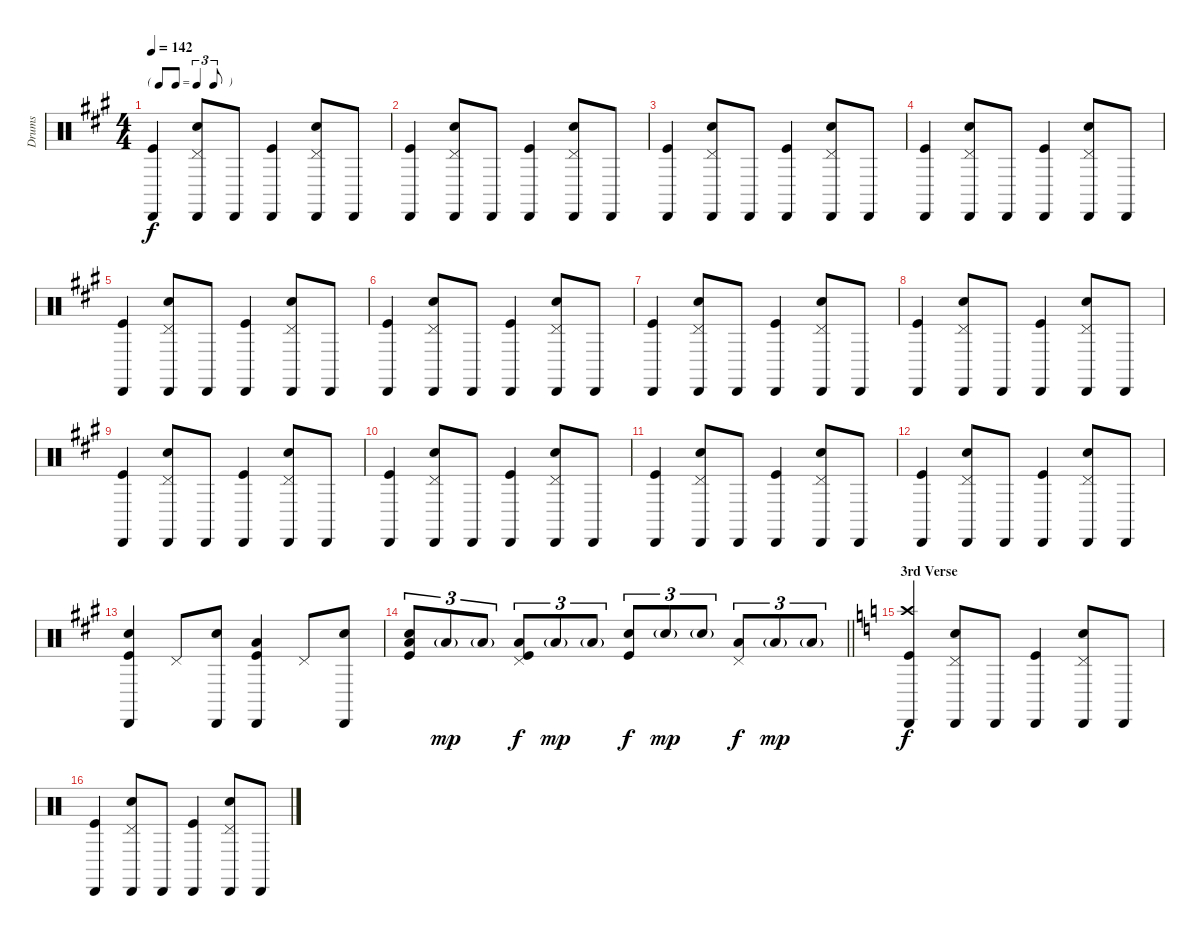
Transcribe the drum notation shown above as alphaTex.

\track ("Drums" "Drums") {instrument percussion}
\staff {score}
\articulation defaults
\ts (4 4)
\tf triplet8th
\tempo 142
\clef neutral
\ks a
("Cabasa (hit)" "Kick (hit)").4{dy f} ("Pedal Hi-Hat (hit)" "Cabasa (hit)" "Snare (hit) 2").8 "Cabasa (hit)".8 ("Cabasa (hit)" "Kick (hit)").4 ("Pedal Hi-Hat (hit)" "Cabasa (hit)" "Snare (hit) 2").8 "Cabasa (hit)".8 |
("Cabasa (hit)" "Kick (hit)").4 ("Pedal Hi-Hat (hit)" "Cabasa (hit)" "Snare (hit) 2").8 "Cabasa (hit)".8 ("Cabasa (hit)" "Kick (hit)").4 ("Pedal Hi-Hat (hit)" "Cabasa (hit)" "Snare (hit) 2").8 "Cabasa (hit)".8 |
("Cabasa (hit)" "Kick (hit)").4 ("Pedal Hi-Hat (hit)" "Cabasa (hit)" "Snare (hit) 2").8 "Cabasa (hit)".8 ("Cabasa (hit)" "Kick (hit)").4 ("Pedal Hi-Hat (hit)" "Cabasa (hit)" "Snare (hit) 2").8 "Cabasa (hit)".8 |
("Cabasa (hit)" "Kick (hit)").4 ("Pedal Hi-Hat (hit)" "Cabasa (hit)" "Snare (hit) 2").8 "Cabasa (hit)".8 ("Cabasa (hit)" "Kick (hit)").4 ("Pedal Hi-Hat (hit)" "Cabasa (hit)" "Snare (hit) 2").8 "Cabasa (hit)".8 |
("Cabasa (hit)" "Kick (hit)").4 ("Pedal Hi-Hat (hit)" "Cabasa (hit)" "Snare (hit) 2").8 "Cabasa (hit)".8 ("Cabasa (hit)" "Kick (hit)").4 ("Pedal Hi-Hat (hit)" "Cabasa (hit)" "Snare (hit) 2").8 "Cabasa (hit)".8 |
("Cabasa (hit)" "Kick (hit)").4 ("Pedal Hi-Hat (hit)" "Cabasa (hit)" "Snare (hit) 2").8 "Cabasa (hit)".8 ("Cabasa (hit)" "Kick (hit)").4 ("Pedal Hi-Hat (hit)" "Cabasa (hit)" "Snare (hit) 2").8 "Cabasa (hit)".8 |
("Cabasa (hit)" "Kick (hit)").4 ("Pedal Hi-Hat (hit)" "Cabasa (hit)" "Snare (hit) 2").8 "Cabasa (hit)".8 ("Cabasa (hit)" "Kick (hit)").4 ("Pedal Hi-Hat (hit)" "Cabasa (hit)" "Snare (hit) 2").8 "Cabasa (hit)".8 |
("Cabasa (hit)" "Kick (hit)").4 ("Pedal Hi-Hat (hit)" "Cabasa (hit)" "Snare (hit) 2").8 "Cabasa (hit)".8 ("Cabasa (hit)" "Kick (hit)").4 ("Pedal Hi-Hat (hit)" "Cabasa (hit)" "Snare (hit) 2").8 "Cabasa (hit)".8 |
("Cabasa (hit)" "Kick (hit)").4 ("Pedal Hi-Hat (hit)" "Cabasa (hit)" "Snare (hit) 2").8 "Cabasa (hit)".8 ("Cabasa (hit)" "Kick (hit)").4 ("Pedal Hi-Hat (hit)" "Cabasa (hit)" "Snare (hit) 2").8 "Cabasa (hit)".8 |
("Cabasa (hit)" "Kick (hit)").4 ("Pedal Hi-Hat (hit)" "Cabasa (hit)" "Snare (hit) 2").8 "Cabasa (hit)".8 ("Cabasa (hit)" "Kick (hit)").4 ("Pedal Hi-Hat (hit)" "Cabasa (hit)" "Snare (hit) 2").8 "Cabasa (hit)".8 |
("Cabasa (hit)" "Kick (hit)").4 ("Pedal Hi-Hat (hit)" "Cabasa (hit)" "Snare (hit) 2").8 "Cabasa (hit)".8 ("Cabasa (hit)" "Kick (hit)").4 ("Pedal Hi-Hat (hit)" "Cabasa (hit)" "Snare (hit) 2").8 "Cabasa (hit)".8 |
("Cabasa (hit)" "Kick (hit)").4 ("Pedal Hi-Hat (hit)" "Cabasa (hit)" "Snare (hit) 2").8 "Cabasa (hit)".8 ("Cabasa (hit)" "Kick (hit)").4 ("Pedal Hi-Hat (hit)" "Cabasa (hit)" "Snare (hit) 2").8 "Cabasa (hit)".8 |
("Cabasa (hit)" "Snare (hit) 2" "Kick (hit)").4 "Pedal Hi-Hat (hit)".8 ("Cabasa (hit)" "Snare (hit) 2").8 ("Cabasa (hit)" "Low Tom (hit)" "Kick (hit)").4 "Pedal Hi-Hat (hit)".8 ("Cabasa (hit)" "Snare (hit) 2").8 |
\barLineRight lightlight
("Snare (hit) 2" "Low Tom (hit)" "Kick (hit)").8{tu (3 2)} "Low Tom (hit)"{g}.8{tu (3 2) dy mp} "Low Tom (hit)"{g}.8{tu (3 2)} ("Pedal Hi-Hat (hit)" "Low Tom (hit)" "Kick (hit)").8{tu (3 2) dy f} "Low Tom (hit)"{g}.8{tu (3 2) dy mp} "Low Tom (hit)"{g}.8{tu (3 2)} ("Snare (hit) 2" "Kick (hit)").8{tu (3 2) dy f} "Snare (hit) 2"{g}.8{tu (3 2) dy mp} "Snare (hit) 2"{g}.8{tu (3 2)} ("Pedal Hi-Hat (hit)" "Low Tom (hit)").8{tu (3 2) dy f} "Low Tom (hit)"{g}.8{tu (3 2) dy mp} "Low Tom (hit)"{g}.8{tu (3 2)} |
\section ("" "3rd Verse")
\ks c
("Crash high (hit)" "Cabasa (hit)" "Kick (hit)").4{dy f} ("Pedal Hi-Hat (hit)" "Cabasa (hit)" "Snare (hit) 2").8 "Cabasa (hit)".8 ("Cabasa (hit)" "Kick (hit)").4 ("Pedal Hi-Hat (hit)" "Cabasa (hit)" "Snare (hit) 2").8 "Cabasa (hit)".8 |
("Cabasa (hit)" "Kick (hit)").4 ("Pedal Hi-Hat (hit)" "Cabasa (hit)" "Snare (hit) 2").8 "Cabasa (hit)".8 ("Cabasa (hit)" "Kick (hit)").4 ("Pedal Hi-Hat (hit)" "Cabasa (hit)" "Snare (hit) 2").8 "Cabasa (hit)".8
